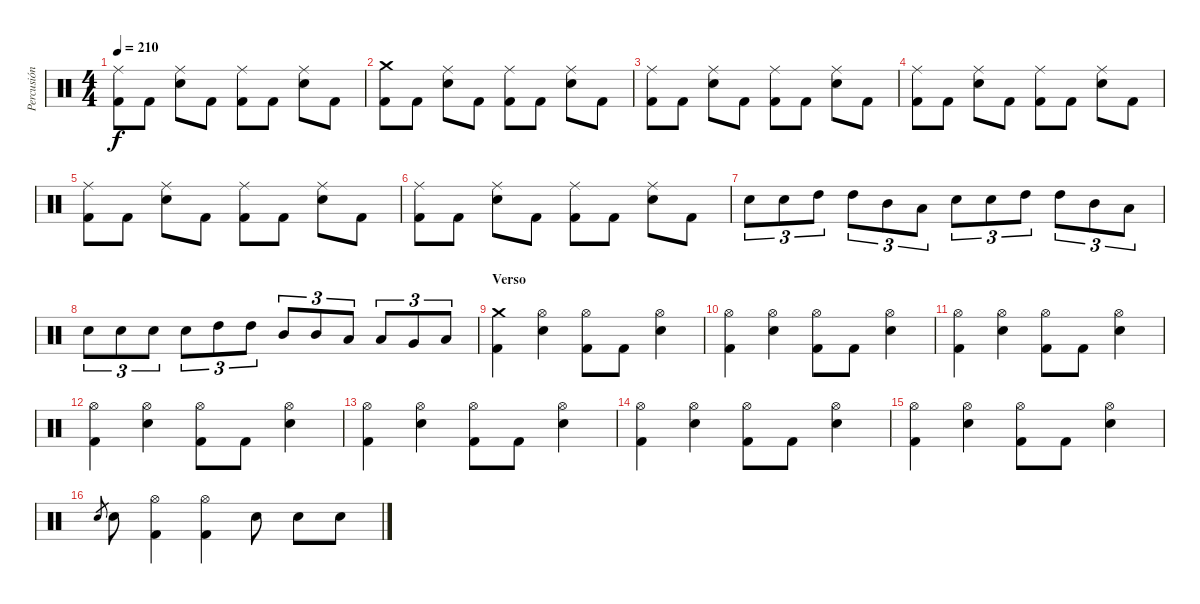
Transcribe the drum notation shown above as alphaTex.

\track ("Percusión" "Percusión") {instrument percussion}
\staff {score}
\articulation defaults
\ts (4 4)
\tempo 210
\clef neutral
\ks c
("Ride (middle)" "Kick (hit) 2").8{dy f} "Kick (hit) 2".8 ("Snare (hit) 2" "Ride (middle)").8 "Kick (hit) 2".8 ("Kick (hit) 2" "Ride (middle)").8 "Kick (hit) 2".8 ("Snare (hit) 2" "Ride (middle)").8 "Kick (hit) 2".8 |
("Crash medium (hit)" "Kick (hit) 2").8 "Kick (hit) 2".8 ("Snare (hit) 2" "Ride (middle)").8 "Kick (hit) 2".8 ("Kick (hit) 2" "Ride (middle)").8 "Kick (hit) 2".8 ("Snare (hit) 2" "Ride (middle)").8 "Kick (hit) 2".8 |
("Ride (middle)" "Kick (hit) 2").8 "Kick (hit) 2".8 ("Snare (hit) 2" "Ride (middle)").8 "Kick (hit) 2".8 ("Kick (hit) 2" "Ride (middle)").8 "Kick (hit) 2".8 ("Snare (hit) 2" "Ride (middle)").8 "Kick (hit) 2".8 |
("Ride (middle)" "Kick (hit) 2").8 "Kick (hit) 2".8 ("Snare (hit) 2" "Ride (middle)").8 "Kick (hit) 2".8 ("Kick (hit) 2" "Ride (middle)").8 "Kick (hit) 2".8 ("Snare (hit) 2" "Ride (middle)").8 "Kick (hit) 2".8 |
("Ride (middle)" "Kick (hit) 2").8 "Kick (hit) 2".8 ("Snare (hit) 2" "Ride (middle)").8 "Kick (hit) 2".8 ("Kick (hit) 2" "Ride (middle)").8 "Kick (hit) 2".8 ("Snare (hit) 2" "Ride (middle)").8 "Kick (hit) 2".8 |
("Ride (middle)" "Kick (hit) 2").8 "Kick (hit) 2".8 ("Snare (hit) 2" "Ride (middle)").8 "Kick (hit) 2".8 ("Kick (hit) 2" "Ride (middle)").8 "Kick (hit) 2".8 ("Snare (hit) 2" "Ride (middle)").8 "Kick (hit) 2".8 |
"Snare (hit) 2".8{tu (3 2)} "Snare (hit) 2".8{tu (3 2)} "High Tom (hit)".8{tu (3 2)} "High Tom (hit)".8{tu (3 2)} "Mid Tom (hit)".8{tu (3 2)} "Low Tom (hit)".8{tu (3 2)} "Snare (hit) 2".8{tu (3 2)} "Snare (hit) 2".8{tu (3 2)} "High Tom (hit)".8{tu (3 2)} "High Tom (hit)".8{tu (3 2)} "Mid Tom (hit)".8{tu (3 2)} "Low Tom (hit)".8{tu (3 2)} |
"Snare (hit) 2".8{tu (3 2)} "Snare (hit) 2".8{tu (3 2)} "Snare (hit) 2".8{tu (3 2)} "Snare (hit) 2".8{tu (3 2)} "High Tom (hit)".8{tu (3 2)} "High Tom (hit)".8{tu (3 2)} "Mid Tom (hit)".8{tu (3 2)} "Mid Tom (hit)".8{tu (3 2)} "Low Tom (hit)".8{tu (3 2)} "Low Tom (hit)".8{tu (3 2)} "Very Low Tom (hit)".8{tu (3 2)} "Low Floor Tom (hit)".8{tu (3 2)} |
\section ("" "Verso")
("Crash medium (hit)" "Kick (hit) 2").4 ("Snare (hit) 2" "Hi-Hat (open)").4 ("Hi-Hat (open)" "Kick (hit) 2").8 "Kick (hit) 2".8 ("Snare (hit) 2" "Hi-Hat (open)").4 |
("Hi-Hat (open)" "Kick (hit) 2").4 ("Snare (hit) 2" "Hi-Hat (open)").4 ("Hi-Hat (open)" "Kick (hit) 2").8 "Kick (hit) 2".8 ("Snare (hit) 2" "Hi-Hat (open)").4 |
("Hi-Hat (open)" "Kick (hit) 2").4 ("Snare (hit) 2" "Hi-Hat (open)").4 ("Hi-Hat (open)" "Kick (hit) 2").8 "Kick (hit) 2".8 ("Snare (hit) 2" "Hi-Hat (open)").4 |
("Hi-Hat (open)" "Kick (hit) 2").4 ("Snare (hit) 2" "Hi-Hat (open)").4 ("Hi-Hat (open)" "Kick (hit) 2").8 "Kick (hit) 2".8 ("Snare (hit) 2" "Hi-Hat (open)").4 |
("Hi-Hat (open)" "Kick (hit) 2").4 ("Snare (hit) 2" "Hi-Hat (open)").4 ("Hi-Hat (open)" "Kick (hit) 2").8 "Kick (hit) 2".8 ("Snare (hit) 2" "Hi-Hat (open)").4 |
("Hi-Hat (open)" "Kick (hit) 2").4 ("Snare (hit) 2" "Hi-Hat (open)").4 ("Hi-Hat (open)" "Kick (hit) 2").8 "Kick (hit) 2".8 ("Snare (hit) 2" "Hi-Hat (open)").4 |
("Hi-Hat (open)" "Kick (hit) 2").4 ("Snare (hit) 2" "Hi-Hat (open)").4 ("Hi-Hat (open)" "Kick (hit) 2").8 "Kick (hit) 2".8 ("Snare (hit) 2" "Hi-Hat (open)").4 |
"Snare (hit) 2".8{gr} "Snare (hit) 2".8 ("Hi-Hat (open)" "Kick (hit) 2").4 ("Hi-Hat (open)" "Kick (hit) 2").4 "Snare (hit) 2".8 "Snare (hit) 2".8 "Snare (hit) 2".8
